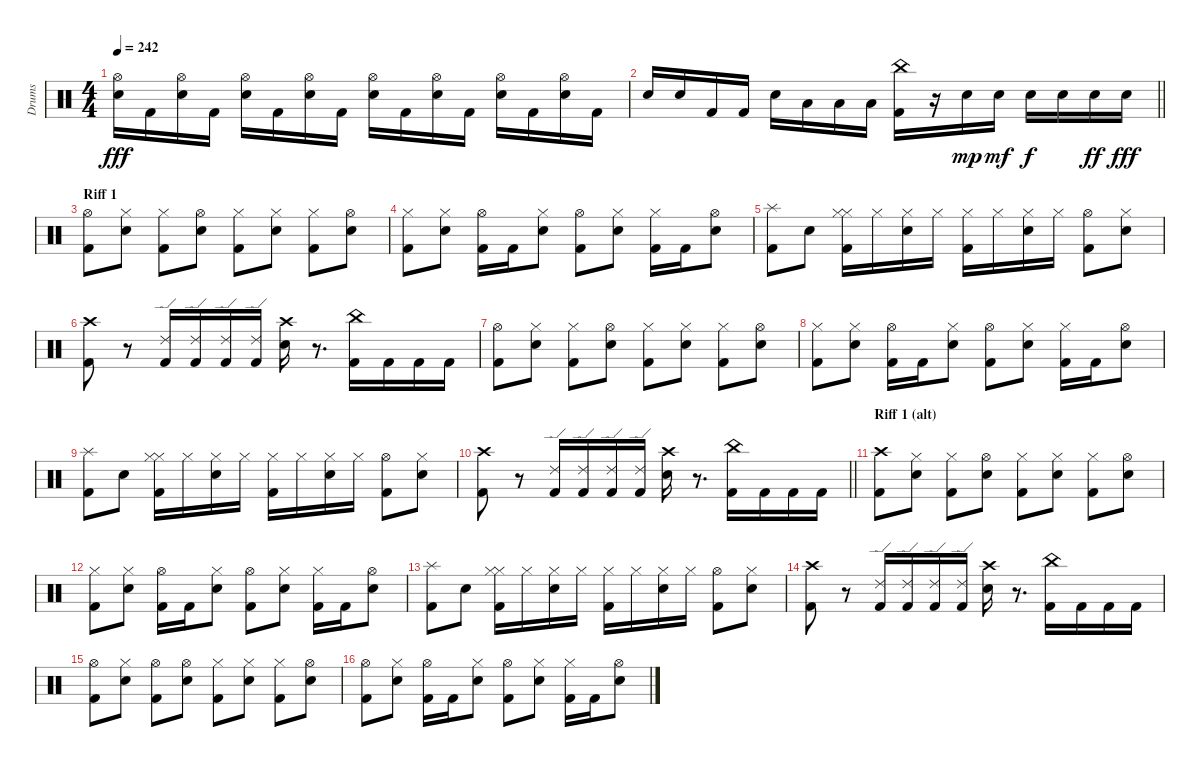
\track ("Drums" "Drums") {instrument percussion}
\staff {score}
\articulation defaults
\ts (4 4)
\tempo 242
\clef neutral
\ks c
("Snare (hit) 2" "Hi-Hat (open)").16{dy fff} "Kick (hit) 2".16 ("Snare (hit) 2" "Hi-Hat (open)").16 "Kick (hit) 2".16 ("Snare (hit) 2" "Hi-Hat (open)").16 "Kick (hit) 2".16 ("Snare (hit) 2" "Hi-Hat (open)").16 "Kick (hit) 2".16 ("Snare (hit) 2" "Hi-Hat (open)").16 "Kick (hit) 2".16 ("Snare (hit) 2" "Hi-Hat (open)").16 "Kick (hit) 2".16 ("Snare (hit) 2" "Hi-Hat (open)").16 "Kick (hit) 2".16 ("Snare (hit) 2" "Hi-Hat (open)").16 "Kick (hit) 2".16 |
\barLineRight lightlight "Snare (hit) 2".16 "Snare (hit) 2".16 "Kick (hit) 2".16 "Kick (hit) 2".16 "Snare (hit) 2".16 "Low Tom (hit)".16 "Low Tom (hit)".16 "Low Tom (hit)".16
("Kick (hit) 2" "China (hit)").16 r.16 "Snare (hit) 2".16{dy mp} "Snare (hit) 2".16{dy mf} "Snare (hit) 2".16{dy f} "Snare (hit) 2".16 "Snare (hit) 2".16{dy ff} "Snare (hit) 2".16{dy fff} |
\section ("" "Riff 1")
("Kick (hit) 2" "Hi-Hat (open)").8 ("Snare (hit) 2" "Hi-Hat (closed)").8 ("Kick (hit) 2" "Hi-Hat (closed)").8 ("Snare (hit) 2" "Hi-Hat (open)").8 ("Kick (hit) 2" "Hi-Hat (closed)").8 ("Snare (hit) 2" "Hi-Hat (closed)").8 ("Kick (hit) 2" "Hi-Hat (closed)").8 ("Snare (hit) 2" "Hi-Hat (open)").8 |
("Kick (hit) 2" "Hi-Hat (closed)").8 ("Snare (hit) 2" "Hi-Hat (closed)").8 ("Kick (hit) 2" "Hi-Hat (open)").16 "Kick (hit) 2".16 ("Snare (hit) 2" "Hi-Hat (closed)").8 ("Kick (hit) 2" "Hi-Hat (open)").8 ("Snare (hit) 2" "Hi-Hat (closed)").8 ("Kick (hit) 2" "Hi-Hat (closed)").16 "Kick (hit) 2".16 ("Snare (hit) 2" "Hi-Hat (open)").8 |
("Kick (hit) 2" "Splash (hit)").8 "Snare (hit) 2".8 ("Kick (hit) 2" "Hi-Hat (closed)" "Hi-Hat (closed)").16 "Hi-Hat (closed)".16 ("Snare (hit) 2" "Hi-Hat (closed)").16 "Hi-Hat (closed)".16 ("Kick (hit) 2" "Hi-Hat (closed)").16 "Hi-Hat (closed)".16 ("Snare (hit) 2" "Hi-Hat (closed)").16 "Hi-Hat (closed)".16 ("Kick (hit) 2" "Hi-Hat (open)").8 ("Snare (hit) 2" "Hi-Hat (closed)").8 |
("Kick (hit) 2" "Crash high (hit)").8 r.8 ("Kick (hit) 2" "Ride (edge) 2").16 ("Kick (hit) 2" "Ride (edge) 2").16 ("Kick (hit) 2" "Ride (edge) 2").16 ("Kick (hit) 2" "Ride (edge) 2").16 ("Snare (hit) 2" "Crash high (hit)").16 r.8{d} ("Kick (hit) 2" "China (hit)").16 "Kick (hit) 2".16 "Kick (hit) 2".16 "Kick (hit) 2".16 |
("Kick (hit) 2" "Hi-Hat (open)").8 ("Snare (hit) 2" "Hi-Hat (closed)").8 ("Kick (hit) 2" "Hi-Hat (closed)").8 ("Snare (hit) 2" "Hi-Hat (open)").8 ("Kick (hit) 2" "Hi-Hat (closed)").8 ("Snare (hit) 2" "Hi-Hat (closed)").8 ("Kick (hit) 2" "Hi-Hat (closed)").8 ("Snare (hit) 2" "Hi-Hat (open)").8 |
("Kick (hit) 2" "Hi-Hat (closed)").8 ("Snare (hit) 2" "Hi-Hat (closed)").8 ("Kick (hit) 2" "Hi-Hat (open)").16 "Kick (hit) 2".16 ("Snare (hit) 2" "Hi-Hat (closed)").8 ("Kick (hit) 2" "Hi-Hat (open)").8 ("Snare (hit) 2" "Hi-Hat (closed)").8 ("Kick (hit) 2" "Hi-Hat (closed)").16 "Kick (hit) 2".16 ("Snare (hit) 2" "Hi-Hat (open)").8 |
("Kick (hit) 2" "Splash (hit)").8 "Snare (hit) 2".8 ("Kick (hit) 2" "Hi-Hat (closed)" "Hi-Hat (closed)").16 "Hi-Hat (closed)".16 ("Snare (hit) 2" "Hi-Hat (closed)").16 "Hi-Hat (closed)".16 ("Kick (hit) 2" "Hi-Hat (closed)").16 "Hi-Hat (closed)".16 ("Snare (hit) 2" "Hi-Hat (closed)").16 "Hi-Hat (closed)".16 ("Kick (hit) 2" "Hi-Hat (open)").8 ("Snare (hit) 2" "Hi-Hat (closed)").8 |
\barLineRight lightlight
("Kick (hit) 2" "Crash high (hit)").8 r.8 ("Kick (hit) 2" "Ride (edge) 2").16 ("Kick (hit) 2" "Ride (edge) 2").16 ("Kick (hit) 2" "Ride (edge) 2").16 ("Kick (hit) 2" "Ride (edge) 2").16 ("Snare (hit) 2" "Crash high (hit)").16 r.8{d} ("Kick (hit) 2" "China (hit)").16 "Kick (hit) 2".16 "Kick (hit) 2".16 "Kick (hit) 2".16 |
\section ("" "Riff 1 (alt)")
("Kick (hit) 2" "Crash high (hit)").8 ("Snare (hit) 2" "Hi-Hat (closed)").8 ("Kick (hit) 2" "Hi-Hat (closed)").8 ("Snare (hit) 2" "Hi-Hat (open)").8 ("Kick (hit) 2" "Hi-Hat (closed)").8 ("Snare (hit) 2" "Hi-Hat (closed)").8 ("Kick (hit) 2" "Hi-Hat (closed)").8 ("Snare (hit) 2" "Hi-Hat (open)").8 |
("Kick (hit) 2" "Hi-Hat (closed)").8 ("Snare (hit) 2" "Hi-Hat (closed)").8 ("Kick (hit) 2" "Hi-Hat (open)").16 "Kick (hit) 2".16 ("Snare (hit) 2" "Hi-Hat (closed)").8 ("Kick (hit) 2" "Hi-Hat (open)").8 ("Snare (hit) 2" "Hi-Hat (closed)").8 ("Kick (hit) 2" "Hi-Hat (closed)").16 "Kick (hit) 2".16 ("Snare (hit) 2" "Hi-Hat (open)").8 |
("Kick (hit) 2" "Splash (hit)").8 "Snare (hit) 2".8 ("Kick (hit) 2" "Hi-Hat (closed)" "Hi-Hat (closed)").16 "Hi-Hat (closed)".16 ("Snare (hit) 2" "Hi-Hat (closed)").16 "Hi-Hat (closed)".16 ("Kick (hit) 2" "Hi-Hat (closed)").16 "Hi-Hat (closed)".16 ("Snare (hit) 2" "Hi-Hat (closed)").16 "Hi-Hat (closed)".16 ("Kick (hit) 2" "Hi-Hat (open)").8 ("Snare (hit) 2" "Hi-Hat (closed)").8 |
("Kick (hit) 2" "Crash high (hit)").8 r.8 ("Kick (hit) 2" "Ride (edge) 2").16 ("Kick (hit) 2" "Ride (edge) 2").16 ("Kick (hit) 2" "Ride (edge) 2").16 ("Kick (hit) 2" "Ride (edge) 2").16 ("Snare (hit) 2" "Crash high (hit)").16 r.8{d} ("Kick (hit) 2" "China (hit)").16 "Kick (hit) 2".16 "Kick (hit) 2".16 "Kick (hit) 2".16 |
("Kick (hit) 2" "Hi-Hat (open)").8 ("Snare (hit) 2" "Hi-Hat (closed)").8 ("Kick (hit) 2" "Hi-Hat (open)").8 ("Snare (hit) 2" "Hi-Hat (open)").8 ("Kick (hit) 2" "Hi-Hat (closed)").8 ("Snare (hit) 2" "Hi-Hat (closed)").8 ("Kick (hit) 2" "Hi-Hat (closed)").8 ("Snare (hit) 2" "Hi-Hat (open)").8 |
("Kick (hit) 2" "Hi-Hat (open)").8 ("Snare (hit) 2" "Hi-Hat (closed)").8 ("Kick (hit) 2" "Hi-Hat (open)").16 "Kick (hit) 2".16 ("Snare (hit) 2" "Hi-Hat (closed)").8 ("Kick (hit) 2" "Hi-Hat (open)").8 ("Snare (hit) 2" "Hi-Hat (closed)").8 ("Kick (hit) 2" "Hi-Hat (closed)").16 "Kick (hit) 2".16 ("Snare (hit) 2" "Hi-Hat (open)").8
